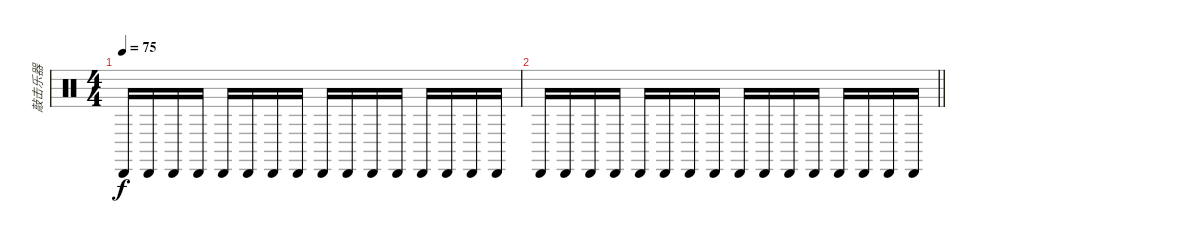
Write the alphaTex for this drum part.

\track ("敲击乐器" "敲击乐器") {instrument percussion}
\staff {score}
\articulation defaults
\ts (4 4)
\tempo 75
\clef neutral
\ks c "Cabasa (hit)".16{dy f} "Cabasa (hit)".16 "Cabasa (hit)".16 "Cabasa (hit)".16 "Cabasa (hit)".16 "Cabasa (hit)".16 "Cabasa (hit)".16 "Cabasa (hit)".16 "Cabasa (hit)".16 "Cabasa (hit)".16 "Cabasa (hit)".16 "Cabasa (hit)".16 "Cabasa (hit)".16 "Cabasa (hit)".16 "Cabasa (hit)".16 "Cabasa (hit)".16
|
\barLineRight lightlight "Cabasa (hit)".16 "Cabasa (hit)".16 "Cabasa (hit)".16 "Cabasa (hit)".16 "Cabasa (hit)".16 "Cabasa (hit)".16 "Cabasa (hit)".16 "Cabasa (hit)".16 "Cabasa (hit)".16 "Cabasa (hit)".16 "Cabasa (hit)".16 "Cabasa (hit)".16 "Cabasa (hit)".16 "Cabasa (hit)".16 "Cabasa (hit)".16 "Cabasa (hit)".16
